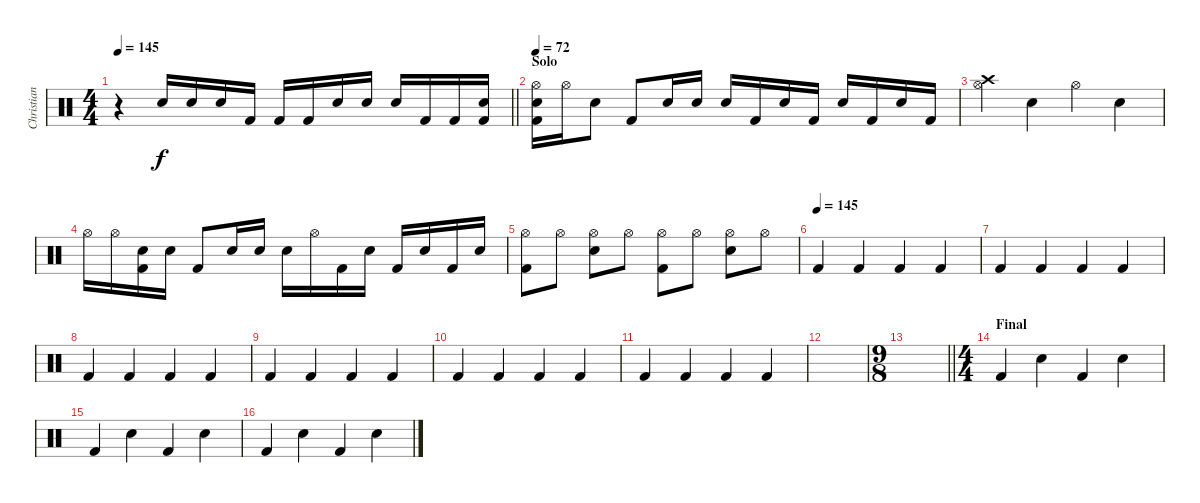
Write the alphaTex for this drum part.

\track ("Christian Paredes" "Christian ") {instrument percussion}
\staff {score}
\articulation defaults
\ts (4 4)
\tempo 145
\clef neutral
\barLineRight lightlight
\ks c
r.4{dy f} "Snare (hit) 2".16 "Snare (hit) 2".16 "Snare (hit) 2".16 "Kick (hit) 2".16 "Kick (hit) 2".16 "Kick (hit) 2".16 "Snare (hit) 2".16 "Snare (hit) 2".16 "Snare (hit) 2".16 "Kick (hit) 2".16 "Kick (hit) 2".16 ("Snare (hit) 2" "Kick (hit) 2").16 |
\section ("" "Solo")
\tempo 72
("Hi-Hat (open)" "Snare (hit) 2" "Kick (hit) 2").16 "Hi-Hat (open)".16 "Snare (hit) 2".8 "Kick (hit) 2".8 "Snare (hit) 2".16 "Snare (hit) 2".16 "Snare (hit) 2".16 "Kick (hit) 2".16 "Snare (hit) 2".16 "Kick (hit) 2".16 "Snare (hit) 2".16 "Kick (hit) 2".16 "Snare (hit) 2".16 "Kick (hit) 2".16 |
("Hi-Hat (open)" "Crash high (hit)").4 "Snare (hit) 2".4 "Hi-Hat (open)".4 "Snare (hit) 2".4 |
"Hi-Hat (open)".16 "Hi-Hat (open)".16 ("Snare (hit) 2" "Kick (hit) 2").16 "Snare (hit) 2".16 "Kick (hit) 2".8 "Snare (hit) 2".16 "Snare (hit) 2".16 "Snare (hit) 2".16 "Hi-Hat (open)".16 "Kick (hit) 2".16 "Snare (hit) 2".16 "Kick (hit) 2".16 "Snare (hit) 2".16 "Kick (hit) 2".16 "Snare (hit) 2".16 |
("Hi-Hat (open)" "Kick (hit) 2").8 "Hi-Hat (open)".8 ("Hi-Hat (open)" "Snare (hit) 2").8 "Hi-Hat (open)".8 ("Hi-Hat (open)" "Kick (hit) 2").8 "Hi-Hat (open)".8 ("Hi-Hat (open)" "Snare (hit) 2").8 "Hi-Hat (open)".8 |
\tempo (145)
"Kick (hit) 2".4 "Kick (hit) 2".4 "Kick (hit) 2".4 "Kick (hit) 2".4 |
"Kick (hit) 2".4 "Kick (hit) 2".4 "Kick (hit) 2".4 "Kick (hit) 2".4 |
"Kick (hit) 2".4 "Kick (hit) 2".4 "Kick (hit) 2".4 "Kick (hit) 2".4 |
"Kick (hit) 2".4 "Kick (hit) 2".4 "Kick (hit) 2".4 "Kick (hit) 2".4 |
"Kick (hit) 2".4 "Kick (hit) 2".4 "Kick (hit) 2".4 "Kick (hit) 2".4 |
"Kick (hit) 2".4 "Kick (hit) 2".4 "Kick (hit) 2".4 "Kick (hit) 2".4 |
|
\ts (9 8)
\barLineRight lightlight
|
\ts (4 4)
\section ("" "Final")
"Kick (hit) 2".4 "Snare (hit) 2".4 "Kick (hit) 2".4 "Snare (hit) 2".4 |
"Kick (hit) 2".4 "Snare (hit) 2".4 "Kick (hit) 2".4 "Snare (hit) 2".4 |
"Kick (hit) 2".4 "Snare (hit) 2".4 "Kick (hit) 2".4 "Snare (hit) 2".4
